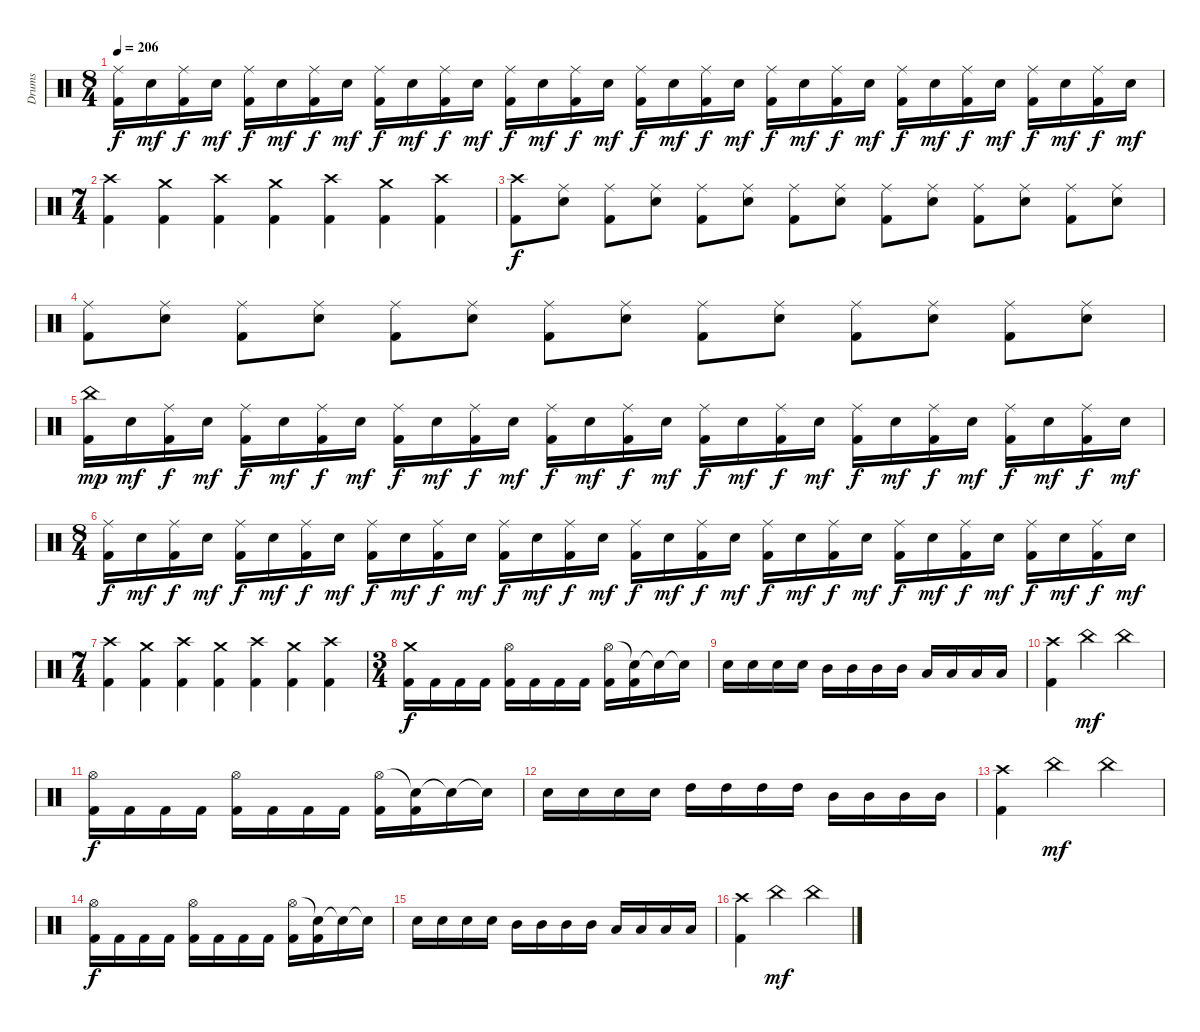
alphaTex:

\track ("Drums" "Drums") {instrument percussion}
\staff {score}
\articulation defaults
\ts (8 4)
\tempo 206
\clef neutral
\ks c
("Ride (middle)" "Kick (hit) 2").16{dy f} "Electric Snare (hit)".16{dy mf} ("Ride (middle)" "Kick (hit) 2").16{dy f} "Electric Snare (hit)".16{dy mf} ("Ride (middle)" "Kick (hit) 2").16{dy f} "Electric Snare (hit)".16{dy mf} ("Ride (middle)" "Kick (hit) 2").16{dy f} "Electric Snare (hit)".16{dy mf} ("Ride (middle)" "Kick (hit) 2").16{dy f} "Electric Snare (hit)".16{dy mf} ("Ride (middle)" "Kick (hit) 2").16{dy f} "Electric Snare (hit)".16{dy mf} ("Ride (middle)" "Kick (hit) 2").16{dy f} "Electric Snare (hit)".16{dy mf} ("Ride (middle)" "Kick (hit) 2").16{dy f} "Electric Snare (hit)".16{dy mf} ("Ride (middle)" "Kick (hit) 2").16{dy f} "Electric Snare (hit)".16{dy mf} ("Ride (middle)" "Kick (hit) 2").16{dy f} "Electric Snare (hit)".16{dy mf} ("Ride (middle)" "Kick (hit) 2").16{dy f} "Electric Snare (hit)".16{dy mf} ("Ride (middle)" "Kick (hit) 2").16{dy f} "Electric Snare (hit)".16{dy mf} ("Ride (middle)" "Kick (hit) 2").16{dy f} "Electric Snare (hit)".16{dy mf} ("Ride (middle)" "Kick (hit) 2").16{dy f} "Electric Snare (hit)".16{dy mf} ("Ride (middle)" "Kick (hit) 2").16{dy f} "Electric Snare (hit)".16{dy mf} ("Ride (middle)" "Kick (hit) 2").16{dy f} "Electric Snare (hit)".16{dy mf} |
\ts (7 4)
("Crash high (hit)" "Kick (hit) 2").4 ("Crash medium (hit)" "Kick (hit) 2").4 ("Crash high (hit)" "Kick (hit) 2").4 ("Crash medium (hit)" "Kick (hit) 2").4 ("Crash high (hit)" "Kick (hit) 2").4 ("Crash medium (hit)" "Kick (hit) 2").4 ("Crash high (hit)" "Kick (hit) 2").4 |
("Crash high (hit)" "Kick (hit) 2").8{dy f} ("Ride (middle)" "Electric Snare (hit)").8 ("Ride (middle)" "Kick (hit) 2").8 ("Ride (middle)" "Electric Snare (hit)").8 ("Ride (middle)" "Kick (hit) 2").8 ("Ride (middle)" "Electric Snare (hit)").8 ("Ride (middle)" "Kick (hit) 2").8 ("Ride (middle)" "Electric Snare (hit)").8 ("Ride (middle)" "Kick (hit) 2").8 ("Ride (middle)" "Electric Snare (hit)").8 ("Ride (middle)" "Kick (hit) 2").8 ("Ride (middle)" "Electric Snare (hit)").8 ("Ride (middle)" "Kick (hit) 2").8 ("Ride (middle)" "Electric Snare (hit)").8 |
("Ride (middle)" "Kick (hit) 2").8 ("Ride (middle)" "Electric Snare (hit)").8 ("Ride (middle)" "Kick (hit) 2").8 ("Ride (middle)" "Electric Snare (hit)").8 ("Ride (middle)" "Kick (hit) 2").8 ("Ride (middle)" "Electric Snare (hit)").8 ("Ride (middle)" "Kick (hit) 2").8 ("Ride (middle)" "Electric Snare (hit)").8 ("Ride (middle)" "Kick (hit) 2").8 ("Ride (middle)" "Electric Snare (hit)").8 ("Ride (middle)" "Kick (hit) 2").8 ("Ride (middle)" "Electric Snare (hit)").8 ("Ride (middle)" "Kick (hit) 2").8 ("Ride (middle)" "Electric Snare (hit)").8 |
("China (hit)" "Kick (hit) 2").16{dy mp} "Electric Snare (hit)".16{dy mf} ("Ride (middle)" "Kick (hit) 2").16{dy f} "Electric Snare (hit)".16{dy mf} ("Ride (middle)" "Kick (hit) 2").16{dy f} "Electric Snare (hit)".16{dy mf} ("Ride (middle)" "Kick (hit) 2").16{dy f} "Electric Snare (hit)".16{dy mf} ("Ride (middle)" "Kick (hit) 2").16{dy f} "Electric Snare (hit)".16{dy mf} ("Ride (middle)" "Kick (hit) 2").16{dy f} "Electric Snare (hit)".16{dy mf} ("Ride (middle)" "Kick (hit) 2").16{dy f} "Electric Snare (hit)".16{dy mf} ("Ride (middle)" "Kick (hit) 2").16{dy f} "Electric Snare (hit)".16{dy mf} ("Ride (middle)" "Kick (hit) 2").16{dy f} "Electric Snare (hit)".16{dy mf} ("Ride (middle)" "Kick (hit) 2").16{dy f} "Electric Snare (hit)".16{dy mf} ("Ride (middle)" "Kick (hit) 2").16{dy f} "Electric Snare (hit)".16{dy mf} ("Ride (middle)" "Kick (hit) 2").16{dy f} "Electric Snare (hit)".16{dy mf} ("Ride (middle)" "Kick (hit) 2").16{dy f} "Electric Snare (hit)".16{dy mf} ("Ride (middle)" "Kick (hit) 2").16{dy f} "Electric Snare (hit)".16{dy mf} |
\ts (8 4)
("Ride (middle)" "Kick (hit) 2").16{dy f} "Electric Snare (hit)".16{dy mf} ("Ride (middle)" "Kick (hit) 2").16{dy f} "Electric Snare (hit)".16{dy mf} ("Ride (middle)" "Kick (hit) 2").16{dy f} "Electric Snare (hit)".16{dy mf} ("Ride (middle)" "Kick (hit) 2").16{dy f} "Electric Snare (hit)".16{dy mf} ("Ride (middle)" "Kick (hit) 2").16{dy f} "Electric Snare (hit)".16{dy mf} ("Ride (middle)" "Kick (hit) 2").16{dy f} "Electric Snare (hit)".16{dy mf} ("Ride (middle)" "Kick (hit) 2").16{dy f} "Electric Snare (hit)".16{dy mf} ("Ride (middle)" "Kick (hit) 2").16{dy f} "Electric Snare (hit)".16{dy mf} ("Ride (middle)" "Kick (hit) 2").16{dy f} "Electric Snare (hit)".16{dy mf} ("Ride (middle)" "Kick (hit) 2").16{dy f} "Electric Snare (hit)".16{dy mf} ("Ride (middle)" "Kick (hit) 2").16{dy f} "Electric Snare (hit)".16{dy mf} ("Ride (middle)" "Kick (hit) 2").16{dy f} "Electric Snare (hit)".16{dy mf} ("Ride (middle)" "Kick (hit) 2").16{dy f} "Electric Snare (hit)".16{dy mf} ("Ride (middle)" "Kick (hit) 2").16{dy f} "Electric Snare (hit)".16{dy mf} ("Ride (middle)" "Kick (hit) 2").16{dy f} "Electric Snare (hit)".16{dy mf} ("Ride (middle)" "Kick (hit) 2").16{dy f} "Electric Snare (hit)".16{dy mf} |
\ts (7 4)
("Crash high (hit)" "Kick (hit) 2").4 ("Crash medium (hit)" "Kick (hit) 2").4 ("Crash high (hit)" "Kick (hit) 2").4 ("Crash medium (hit)" "Kick (hit) 2").4 ("Crash high (hit)" "Kick (hit) 2").4 ("Crash medium (hit)" "Kick (hit) 2").4 ("Crash high (hit)" "Kick (hit) 2").4 |
\ts (3 4)
("Crash medium (hit)" "Kick (hit) 2").16{dy f} "Kick (hit) 2".16 "Kick (hit) 2".16 "Kick (hit) 2".16 ("Hi-Hat (open)" "Kick (hit) 2").16 "Kick (hit) 2".16 "Kick (hit) 2".16 "Kick (hit) 2".16 ("Hi-Hat (open)" "Kick (hit) 2").16 ("Snare (hit)"{t} "Kick (hit) 2").16 "Snare (hit)"{t}.16 "Snare (hit)"{t}.16 |
"Electric Snare (hit)".16 "Electric Snare (hit)".16 "Electric Snare (hit)".16 "Electric Snare (hit)".16 "Mid Tom (hit)".16 "Mid Tom (hit)".16 "Mid Tom (hit)".16 "Mid Tom (hit)".16 "Low Tom (hit)".16 "Low Tom (hit)".16 "Low Tom (hit)".16 "Low Tom (hit)".16 |
("Crash high (hit)" "Kick (hit) 2").4 "China (hit)".4{dy mf} "China (hit)".4 |
("Hi-Hat (open)" "Kick (hit) 2").16{dy f} "Kick (hit) 2".16 "Kick (hit) 2".16 "Kick (hit) 2".16 ("Hi-Hat (open)" "Kick (hit) 2").16 "Kick (hit) 2".16 "Kick (hit) 2".16 "Kick (hit) 2".16 ("Hi-Hat (open)" "Kick (hit) 2").16 ("Snare (hit)"{t} "Kick (hit) 2").16 "Snare (hit)"{t}.16 "Snare (hit)"{t}.16 |
"Electric Snare (hit)".16 "Electric Snare (hit)".16 "Electric Snare (hit)".16 "Electric Snare (hit)".16 "High Tom (hit)".16 "High Tom (hit)".16 "High Tom (hit)".16 "High Tom (hit)".16 "Mid Tom (hit)".16 "Mid Tom (hit)".16 "Mid Tom (hit)".16 "Mid Tom (hit)".16 |
("Crash high (hit)" "Kick (hit) 2").4 "China (hit)".4{dy mf} "China (hit)".4 |
("Hi-Hat (open)" "Kick (hit) 2").16{dy f} "Kick (hit) 2".16 "Kick (hit) 2".16 "Kick (hit) 2".16 ("Hi-Hat (open)" "Kick (hit) 2").16 "Kick (hit) 2".16 "Kick (hit) 2".16 "Kick (hit) 2".16 ("Hi-Hat (open)" "Kick (hit) 2").16 ("Snare (hit)"{t} "Kick (hit) 2").16 "Snare (hit)"{t}.16 "Snare (hit)"{t}.16 |
"Electric Snare (hit)".16 "Electric Snare (hit)".16 "Electric Snare (hit)".16 "Electric Snare (hit)".16 "Mid Tom (hit)".16 "Mid Tom (hit)".16 "Mid Tom (hit)".16 "Mid Tom (hit)".16 "Low Tom (hit)".16 "Low Tom (hit)".16 "Low Tom (hit)".16 "Low Tom (hit)".16 |
("Crash high (hit)" "Kick (hit) 2").4 "China (hit)".4{dy mf} "China (hit)".4
